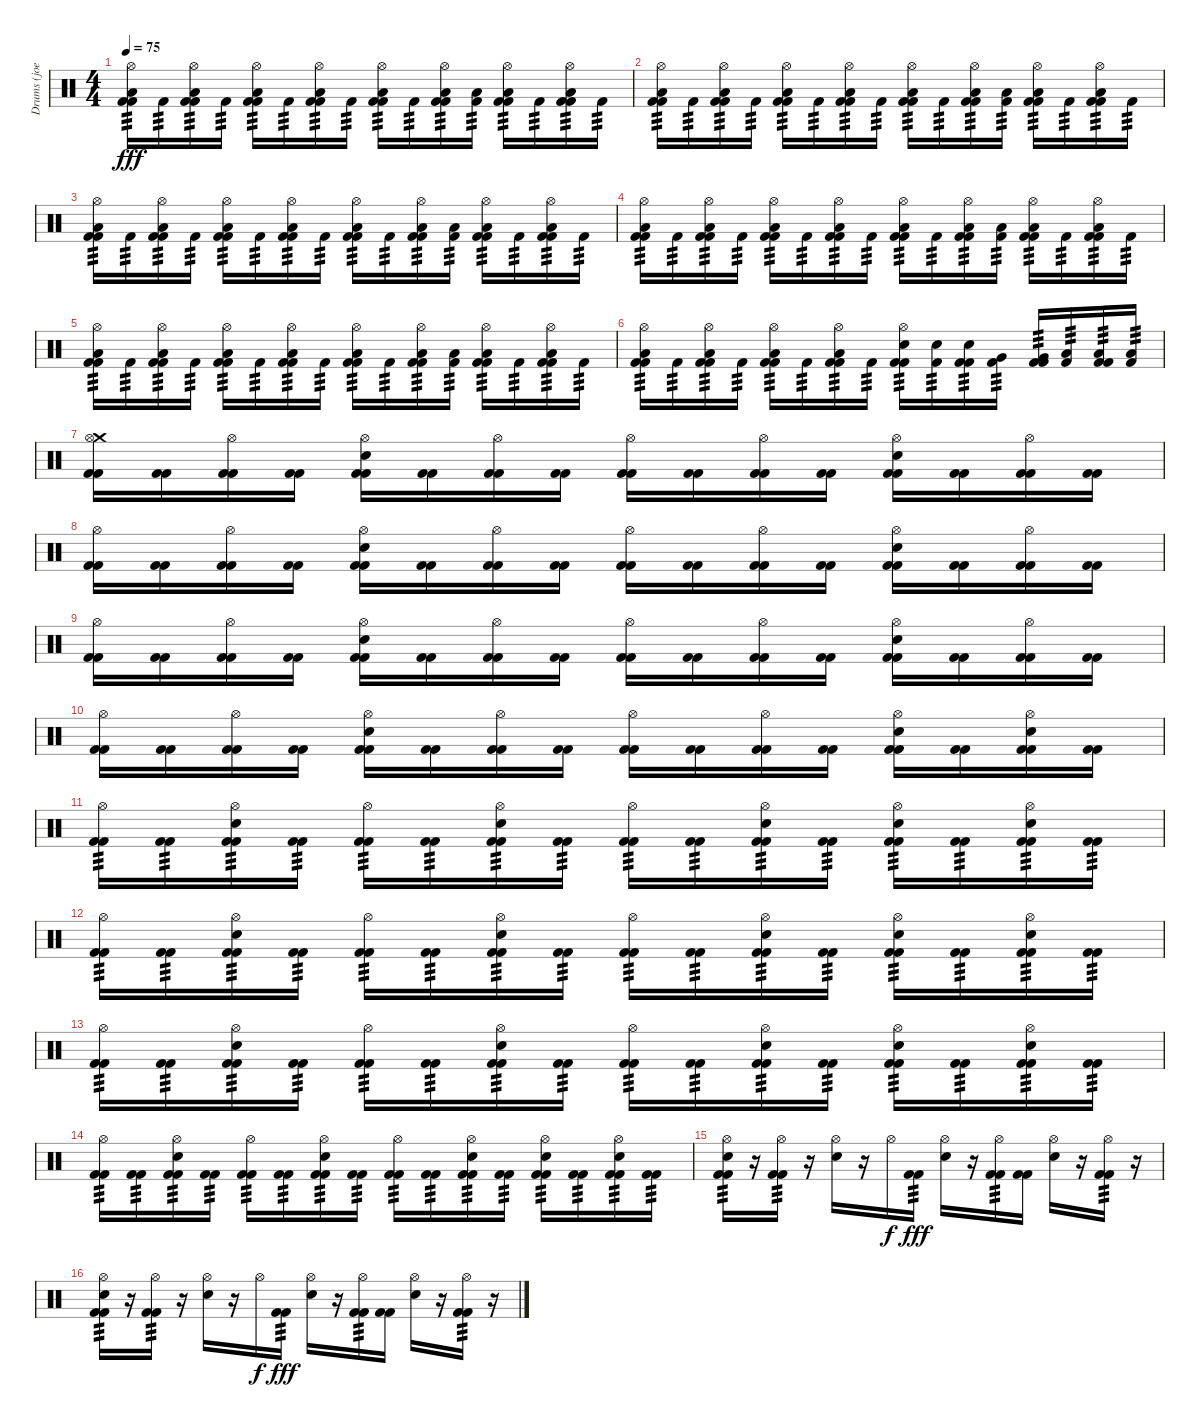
\track ("Drums (joey)" "Drums (joe") {instrument percussion}
\staff {score}
\articulation defaults
\ts (4 4)
\tempo 75
\clef neutral
\ks c
("Hi-Hat (open)" "Low Floor Tom (hit)" "Kick (hit) 2" "Kick (hit) 2").16{tp 3 dy fff} "Kick (hit) 2".16{tp 3} ("Hi-Hat (open)" "Low Floor Tom (hit)" "Kick (hit) 2" "Kick (hit) 2").16{tp 3} "Kick (hit) 2".16{tp 3} ("Hi-Hat (open)" "Low Floor Tom (hit)" "Kick (hit) 2" "Kick (hit) 2").16{tp 3} "Kick (hit) 2".16{tp 3} ("Hi-Hat (open)" "Low Floor Tom (hit)" "Kick (hit) 2" "Kick (hit) 2").16{tp 3} "Kick (hit) 2".16{tp 3} ("Hi-Hat (open)" "Low Floor Tom (hit)" "Kick (hit) 2" "Kick (hit) 2").16{tp 3} "Kick (hit) 2".16{tp 3} ("Hi-Hat (open)" "Low Floor Tom (hit)" "Kick (hit) 2" "Kick (hit) 2").16{tp 3} ("Low Floor Tom (hit)" "Kick (hit) 2").16{tp 3} ("Hi-Hat (open)" "Low Floor Tom (hit)" "Kick (hit) 2" "Kick (hit) 2").16{tp 3} "Kick (hit) 2".16{tp 3} ("Hi-Hat (open)" "Low Floor Tom (hit)" "Kick (hit) 2" "Kick (hit) 2").16{tp 3} "Kick (hit) 2".16{tp 3} |
("Hi-Hat (open)" "Low Floor Tom (hit)" "Kick (hit) 2" "Kick (hit) 2").16{tp 3} "Kick (hit) 2".16{tp 3} ("Hi-Hat (open)" "Low Floor Tom (hit)" "Kick (hit) 2" "Kick (hit) 2").16{tp 3} "Kick (hit) 2".16{tp 3} ("Hi-Hat (open)" "Low Floor Tom (hit)" "Kick (hit) 2" "Kick (hit) 2").16{tp 3} "Kick (hit) 2".16{tp 3} ("Hi-Hat (open)" "Low Floor Tom (hit)" "Kick (hit) 2" "Kick (hit) 2").16{tp 3} "Kick (hit) 2".16{tp 3} ("Hi-Hat (open)" "Low Floor Tom (hit)" "Kick (hit) 2" "Kick (hit) 2").16{tp 3} "Kick (hit) 2".16{tp 3} ("Hi-Hat (open)" "Low Floor Tom (hit)" "Kick (hit) 2" "Kick (hit) 2").16{tp 3} ("Low Floor Tom (hit)" "Kick (hit) 2").16{tp 3} ("Hi-Hat (open)" "Low Floor Tom (hit)" "Kick (hit) 2" "Kick (hit) 2").16{tp 3} "Kick (hit) 2".16{tp 3} ("Hi-Hat (open)" "Low Floor Tom (hit)" "Kick (hit) 2" "Kick (hit) 2").16{tp 3} "Kick (hit) 2".16{tp 3} |
("Hi-Hat (open)" "Low Floor Tom (hit)" "Kick (hit) 2" "Kick (hit) 2").16{tp 3} "Kick (hit) 2".16{tp 3} ("Hi-Hat (open)" "Low Floor Tom (hit)" "Kick (hit) 2" "Kick (hit) 2").16{tp 3} "Kick (hit) 2".16{tp 3} ("Hi-Hat (open)" "Low Floor Tom (hit)" "Kick (hit) 2" "Kick (hit) 2").16{tp 3} "Kick (hit) 2".16{tp 3} ("Hi-Hat (open)" "Low Floor Tom (hit)" "Kick (hit) 2" "Kick (hit) 2").16{tp 3} "Kick (hit) 2".16{tp 3} ("Hi-Hat (open)" "Low Floor Tom (hit)" "Kick (hit) 2" "Kick (hit) 2").16{tp 3} "Kick (hit) 2".16{tp 3} ("Hi-Hat (open)" "Low Floor Tom (hit)" "Kick (hit) 2" "Kick (hit) 2").16{tp 3} ("Low Floor Tom (hit)" "Kick (hit) 2").16{tp 3} ("Hi-Hat (open)" "Low Floor Tom (hit)" "Kick (hit) 2" "Kick (hit) 2").16{tp 3} "Kick (hit) 2".16{tp 3} ("Hi-Hat (open)" "Low Floor Tom (hit)" "Kick (hit) 2" "Kick (hit) 2").16{tp 3} "Kick (hit) 2".16{tp 3} |
("Hi-Hat (open)" "Low Floor Tom (hit)" "Kick (hit) 2" "Kick (hit) 2").16{tp 3} "Kick (hit) 2".16{tp 3} ("Hi-Hat (open)" "Low Floor Tom (hit)" "Kick (hit) 2" "Kick (hit) 2").16{tp 3} "Kick (hit) 2".16{tp 3} ("Hi-Hat (open)" "Low Floor Tom (hit)" "Kick (hit) 2" "Kick (hit) 2").16{tp 3} "Kick (hit) 2".16{tp 3} ("Hi-Hat (open)" "Low Floor Tom (hit)" "Kick (hit) 2" "Kick (hit) 2").16{tp 3} "Kick (hit) 2".16{tp 3} ("Hi-Hat (open)" "Low Floor Tom (hit)" "Kick (hit) 2" "Kick (hit) 2").16{tp 3} "Kick (hit) 2".16{tp 3} ("Hi-Hat (open)" "Low Floor Tom (hit)" "Kick (hit) 2" "Kick (hit) 2").16{tp 3} ("Low Floor Tom (hit)" "Kick (hit) 2").16{tp 3} ("Hi-Hat (open)" "Low Floor Tom (hit)" "Kick (hit) 2" "Kick (hit) 2").16{tp 3} "Kick (hit) 2".16{tp 3} ("Hi-Hat (open)" "Low Floor Tom (hit)" "Kick (hit) 2" "Kick (hit) 2").16{tp 3} "Kick (hit) 2".16{tp 3} |
("Hi-Hat (open)" "Low Floor Tom (hit)" "Kick (hit) 2" "Kick (hit) 2").16{tp 3} "Kick (hit) 2".16{tp 3} ("Hi-Hat (open)" "Low Floor Tom (hit)" "Kick (hit) 2" "Kick (hit) 2").16{tp 3} "Kick (hit) 2".16{tp 3} ("Hi-Hat (open)" "Low Floor Tom (hit)" "Kick (hit) 2" "Kick (hit) 2").16{tp 3} "Kick (hit) 2".16{tp 3} ("Hi-Hat (open)" "Low Floor Tom (hit)" "Kick (hit) 2" "Kick (hit) 2").16{tp 3} "Kick (hit) 2".16{tp 3} ("Hi-Hat (open)" "Low Floor Tom (hit)" "Kick (hit) 2" "Kick (hit) 2").16{tp 3} "Kick (hit) 2".16{tp 3} ("Hi-Hat (open)" "Low Floor Tom (hit)" "Kick (hit) 2" "Kick (hit) 2").16{tp 3} ("Low Floor Tom (hit)" "Kick (hit) 2").16{tp 3} ("Hi-Hat (open)" "Low Floor Tom (hit)" "Kick (hit) 2" "Kick (hit) 2").16{tp 3} "Kick (hit) 2".16{tp 3} ("Hi-Hat (open)" "Low Floor Tom (hit)" "Kick (hit) 2" "Kick (hit) 2").16{tp 3} "Kick (hit) 2".16{tp 3} |
("Hi-Hat (open)" "Low Floor Tom (hit)" "Kick (hit) 2" "Kick (hit) 2").16{tp 3} "Kick (hit) 2".16{tp 3} ("Hi-Hat (open)" "Low Floor Tom (hit)" "Kick (hit) 2" "Kick (hit) 2").16{tp 3} "Kick (hit) 2".16{tp 3} ("Hi-Hat (open)" "Low Floor Tom (hit)" "Kick (hit) 2" "Kick (hit) 2").16{tp 3} "Kick (hit) 2".16{tp 3} ("Hi-Hat (open)" "Low Floor Tom (hit)" "Kick (hit) 2" "Kick (hit) 2").16{tp 3} "Kick (hit) 2".16{tp 3} ("Hi-Hat (open)" "Electric Snare (hit)" "Kick (hit) 2" "Kick (hit) 2").16{tp 3} ("Electric Snare (hit)" "Kick (hit) 2").16{tp 3} ("Electric Snare (hit)" "Kick (hit) 2" "Kick (hit) 2").16{tp 3} ("Very Low Tom (hit)" "Kick (hit) 2").16{tp 3} ("Very Low Tom (hit)" "Kick (hit) 2" "Kick (hit) 2").16{tp 3} ("Low Floor Tom (hit)" "Kick (hit) 2").16{tp 3} ("Low Floor Tom (hit)" "Kick (hit) 2" "Kick (hit) 2").16{tp 3} ("Low Floor Tom (hit)" "Kick (hit) 2").16{tp 3} |
("Crash medium (hit)" "Hi-Hat (open)" "Kick (hit) 2" "Kick (hit) 2").16 ("Kick (hit) 2" "Kick (hit) 2").16 ("Hi-Hat (open)" "Kick (hit) 2" "Kick (hit) 2").16 ("Kick (hit) 2" "Kick (hit) 2").16 ("Hi-Hat (open)" "Electric Snare (hit)" "Kick (hit) 2" "Kick (hit) 2").16 ("Kick (hit) 2" "Kick (hit) 2").16 ("Hi-Hat (open)" "Kick (hit) 2" "Kick (hit) 2").16 ("Kick (hit) 2" "Kick (hit) 2").16 ("Hi-Hat (open)" "Kick (hit) 2" "Kick (hit) 2").16 ("Kick (hit) 2" "Kick (hit) 2").16 ("Hi-Hat (open)" "Kick (hit) 2" "Kick (hit) 2").16 ("Kick (hit) 2" "Kick (hit) 2").16 ("Hi-Hat (open)" "Electric Snare (hit)" "Kick (hit) 2" "Kick (hit) 2").16 ("Kick (hit) 2" "Kick (hit) 2").16 ("Hi-Hat (open)" "Kick (hit) 2" "Kick (hit) 2").16 ("Kick (hit) 2" "Kick (hit) 2").16 |
("Hi-Hat (open)" "Kick (hit) 2" "Kick (hit) 2").16 ("Kick (hit) 2" "Kick (hit) 2").16 ("Hi-Hat (open)" "Kick (hit) 2" "Kick (hit) 2").16 ("Kick (hit) 2" "Kick (hit) 2").16 ("Hi-Hat (open)" "Electric Snare (hit)" "Kick (hit) 2" "Kick (hit) 2").16 ("Kick (hit) 2" "Kick (hit) 2").16 ("Hi-Hat (open)" "Kick (hit) 2" "Kick (hit) 2").16 ("Kick (hit) 2" "Kick (hit) 2").16 ("Hi-Hat (open)" "Kick (hit) 2" "Kick (hit) 2").16 ("Kick (hit) 2" "Kick (hit) 2").16 ("Hi-Hat (open)" "Kick (hit) 2" "Kick (hit) 2").16 ("Kick (hit) 2" "Kick (hit) 2").16 ("Hi-Hat (open)" "Electric Snare (hit)" "Kick (hit) 2" "Kick (hit) 2").16 ("Kick (hit) 2" "Kick (hit) 2").16 ("Hi-Hat (open)" "Kick (hit) 2" "Kick (hit) 2").16 ("Kick (hit) 2" "Kick (hit) 2").16 |
("Hi-Hat (open)" "Kick (hit) 2" "Kick (hit) 2").16 ("Kick (hit) 2" "Kick (hit) 2").16 ("Hi-Hat (open)" "Kick (hit) 2" "Kick (hit) 2").16 ("Kick (hit) 2" "Kick (hit) 2").16 ("Hi-Hat (open)" "Electric Snare (hit)" "Kick (hit) 2" "Kick (hit) 2").16 ("Kick (hit) 2" "Kick (hit) 2").16 ("Hi-Hat (open)" "Kick (hit) 2" "Kick (hit) 2").16 ("Kick (hit) 2" "Kick (hit) 2").16 ("Hi-Hat (open)" "Kick (hit) 2" "Kick (hit) 2").16 ("Kick (hit) 2" "Kick (hit) 2").16 ("Hi-Hat (open)" "Kick (hit) 2" "Kick (hit) 2").16 ("Kick (hit) 2" "Kick (hit) 2").16 ("Hi-Hat (open)" "Electric Snare (hit)" "Kick (hit) 2" "Kick (hit) 2").16 ("Kick (hit) 2" "Kick (hit) 2").16 ("Hi-Hat (open)" "Kick (hit) 2" "Kick (hit) 2").16 ("Kick (hit) 2" "Kick (hit) 2").16 |
("Hi-Hat (open)" "Kick (hit) 2" "Kick (hit) 2").16 ("Kick (hit) 2" "Kick (hit) 2").16 ("Hi-Hat (open)" "Kick (hit) 2" "Kick (hit) 2").16 ("Kick (hit) 2" "Kick (hit) 2").16 ("Hi-Hat (open)" "Electric Snare (hit)" "Kick (hit) 2" "Kick (hit) 2").16 ("Kick (hit) 2" "Kick (hit) 2").16 ("Hi-Hat (open)" "Kick (hit) 2" "Kick (hit) 2").16 ("Kick (hit) 2" "Kick (hit) 2").16 ("Hi-Hat (open)" "Kick (hit) 2" "Kick (hit) 2").16 ("Kick (hit) 2" "Kick (hit) 2").16 ("Hi-Hat (open)" "Kick (hit) 2" "Kick (hit) 2").16 ("Kick (hit) 2" "Kick (hit) 2").16 ("Hi-Hat (open)" "Electric Snare (hit)" "Kick (hit) 2" "Kick (hit) 2").16 ("Kick (hit) 2" "Kick (hit) 2").16 ("Hi-Hat (open)" "Electric Snare (hit)" "Kick (hit) 2" "Kick (hit) 2").16 ("Kick (hit) 2" "Kick (hit) 2").16 |
("Hi-Hat (open)" "Kick (hit) 2" "Kick (hit) 2").16{tp 3} ("Kick (hit) 2" "Kick (hit) 2").16{tp 3} ("Hi-Hat (open)" "Electric Snare (hit)" "Kick (hit) 2" "Kick (hit) 2").16{tp 3} ("Kick (hit) 2" "Kick (hit) 2").16{tp 3} ("Hi-Hat (open)" "Kick (hit) 2" "Kick (hit) 2").16{tp 3} ("Kick (hit) 2" "Kick (hit) 2").16{tp 3} ("Hi-Hat (open)" "Electric Snare (hit)" "Kick (hit) 2" "Kick (hit) 2").16{tp 3} ("Kick (hit) 2" "Kick (hit) 2").16{tp 3} ("Hi-Hat (open)" "Kick (hit) 2" "Kick (hit) 2").16{tp 3} ("Kick (hit) 2" "Kick (hit) 2").16{tp 3} ("Hi-Hat (open)" "Electric Snare (hit)" "Kick (hit) 2" "Kick (hit) 2").16{tp 3} ("Kick (hit) 2" "Kick (hit) 2").16{tp 3} ("Hi-Hat (open)" "Electric Snare (hit)" "Kick (hit) 2" "Kick (hit) 2").16{tp 3} ("Kick (hit) 2" "Kick (hit) 2").16{tp 3} ("Hi-Hat (open)" "Electric Snare (hit)" "Kick (hit) 2" "Kick (hit) 2").16{tp 3} ("Kick (hit) 2" "Kick (hit) 2").16{tp 3} |
("Hi-Hat (open)" "Kick (hit) 2" "Kick (hit) 2").16{tp 3} ("Kick (hit) 2" "Kick (hit) 2").16{tp 3} ("Hi-Hat (open)" "Electric Snare (hit)" "Kick (hit) 2" "Kick (hit) 2").16{tp 3} ("Kick (hit) 2" "Kick (hit) 2").16{tp 3} ("Hi-Hat (open)" "Kick (hit) 2" "Kick (hit) 2").16{tp 3} ("Kick (hit) 2" "Kick (hit) 2").16{tp 3} ("Hi-Hat (open)" "Electric Snare (hit)" "Kick (hit) 2" "Kick (hit) 2").16{tp 3} ("Kick (hit) 2" "Kick (hit) 2").16{tp 3} ("Hi-Hat (open)" "Kick (hit) 2" "Kick (hit) 2").16{tp 3} ("Kick (hit) 2" "Kick (hit) 2").16{tp 3} ("Hi-Hat (open)" "Electric Snare (hit)" "Kick (hit) 2" "Kick (hit) 2").16{tp 3} ("Kick (hit) 2" "Kick (hit) 2").16{tp 3} ("Hi-Hat (open)" "Electric Snare (hit)" "Kick (hit) 2" "Kick (hit) 2").16{tp 3} ("Kick (hit) 2" "Kick (hit) 2").16{tp 3} ("Hi-Hat (open)" "Electric Snare (hit)" "Kick (hit) 2" "Kick (hit) 2").16{tp 3} ("Kick (hit) 2" "Kick (hit) 2").16{tp 3} |
("Hi-Hat (open)" "Kick (hit) 2" "Kick (hit) 2").16{tp 3} ("Kick (hit) 2" "Kick (hit) 2").16{tp 3} ("Hi-Hat (open)" "Electric Snare (hit)" "Kick (hit) 2" "Kick (hit) 2").16{tp 3} ("Kick (hit) 2" "Kick (hit) 2").16{tp 3} ("Hi-Hat (open)" "Kick (hit) 2" "Kick (hit) 2").16{tp 3} ("Kick (hit) 2" "Kick (hit) 2").16{tp 3} ("Hi-Hat (open)" "Electric Snare (hit)" "Kick (hit) 2" "Kick (hit) 2").16{tp 3} ("Kick (hit) 2" "Kick (hit) 2").16{tp 3} ("Hi-Hat (open)" "Kick (hit) 2" "Kick (hit) 2").16{tp 3} ("Kick (hit) 2" "Kick (hit) 2").16{tp 3} ("Hi-Hat (open)" "Electric Snare (hit)" "Kick (hit) 2" "Kick (hit) 2").16{tp 3} ("Kick (hit) 2" "Kick (hit) 2").16{tp 3} ("Hi-Hat (open)" "Electric Snare (hit)" "Kick (hit) 2" "Kick (hit) 2").16{tp 3} ("Kick (hit) 2" "Kick (hit) 2").16{tp 3} ("Hi-Hat (open)" "Electric Snare (hit)" "Kick (hit) 2" "Kick (hit) 2").16{tp 3} ("Kick (hit) 2" "Kick (hit) 2").16{tp 3} |
("Hi-Hat (open)" "Kick (hit) 2" "Kick (hit) 2").16{tp 3} ("Kick (hit) 2" "Kick (hit) 2").16{tp 3} ("Hi-Hat (open)" "Electric Snare (hit)" "Kick (hit) 2" "Kick (hit) 2").16{tp 3} ("Kick (hit) 2" "Kick (hit) 2").16{tp 3} ("Hi-Hat (open)" "Kick (hit) 2" "Kick (hit) 2").16{tp 3} ("Kick (hit) 2" "Kick (hit) 2").16{tp 3} ("Hi-Hat (open)" "Electric Snare (hit)" "Kick (hit) 2" "Kick (hit) 2").16{tp 3} ("Kick (hit) 2" "Kick (hit) 2").16{tp 3} ("Hi-Hat (open)" "Kick (hit) 2" "Kick (hit) 2").16{tp 3} ("Kick (hit) 2" "Kick (hit) 2").16{tp 3} ("Hi-Hat (open)" "Electric Snare (hit)" "Kick (hit) 2" "Kick (hit) 2").16{tp 3} ("Kick (hit) 2" "Kick (hit) 2").16{tp 3} ("Hi-Hat (open)" "Electric Snare (hit)" "Kick (hit) 2" "Kick (hit) 2").16{tp 3} ("Kick (hit) 2" "Kick (hit) 2").16{tp 3} ("Hi-Hat (open)" "Electric Snare (hit)" "Kick (hit) 2" "Kick (hit) 2").16{tp 3} ("Kick (hit) 2" "Kick (hit) 2").16{tp 3} |
("Hi-Hat (open)" "Electric Snare (hit)" "Kick (hit) 2" "Kick (hit) 2").16{tp 3} r.16 ("Hi-Hat (open)" "Kick (hit) 2" "Kick (hit) 2").16{tp 3} r.16 ("Hi-Hat (open)" "Electric Snare (hit)").16 r.16 "Hi-Hat (open)".16{dy f} ("Kick (hit) 2" "Kick (hit) 2").16{tp 3 dy fff} ("Hi-Hat (open)" "Electric Snare (hit)").16 r.16 ("Hi-Hat (open)" "Kick (hit) 2" "Kick (hit) 2").16{tp 3} ("Kick (hit) 2" "Kick (hit) 2").16 ("Hi-Hat (open)" "Electric Snare (hit)").16 r.16 ("Hi-Hat (open)" "Kick (hit) 2" "Kick (hit) 2").16{tp 3} r.16 |
("Hi-Hat (open)" "Electric Snare (hit)" "Kick (hit) 2" "Kick (hit) 2").16{tp 3} r.16 ("Hi-Hat (open)" "Kick (hit) 2" "Kick (hit) 2").16{tp 3} r.16 ("Hi-Hat (open)" "Electric Snare (hit)").16 r.16 "Hi-Hat (open)".16{dy f} ("Kick (hit) 2" "Kick (hit) 2").16{tp 3 dy fff} ("Hi-Hat (open)" "Electric Snare (hit)").16 r.16 ("Hi-Hat (open)" "Kick (hit) 2" "Kick (hit) 2").16{tp 3} ("Kick (hit) 2" "Kick (hit) 2").16 ("Hi-Hat (open)" "Electric Snare (hit)").16 r.16 ("Hi-Hat (open)" "Kick (hit) 2" "Kick (hit) 2").16{tp 3} r.16
